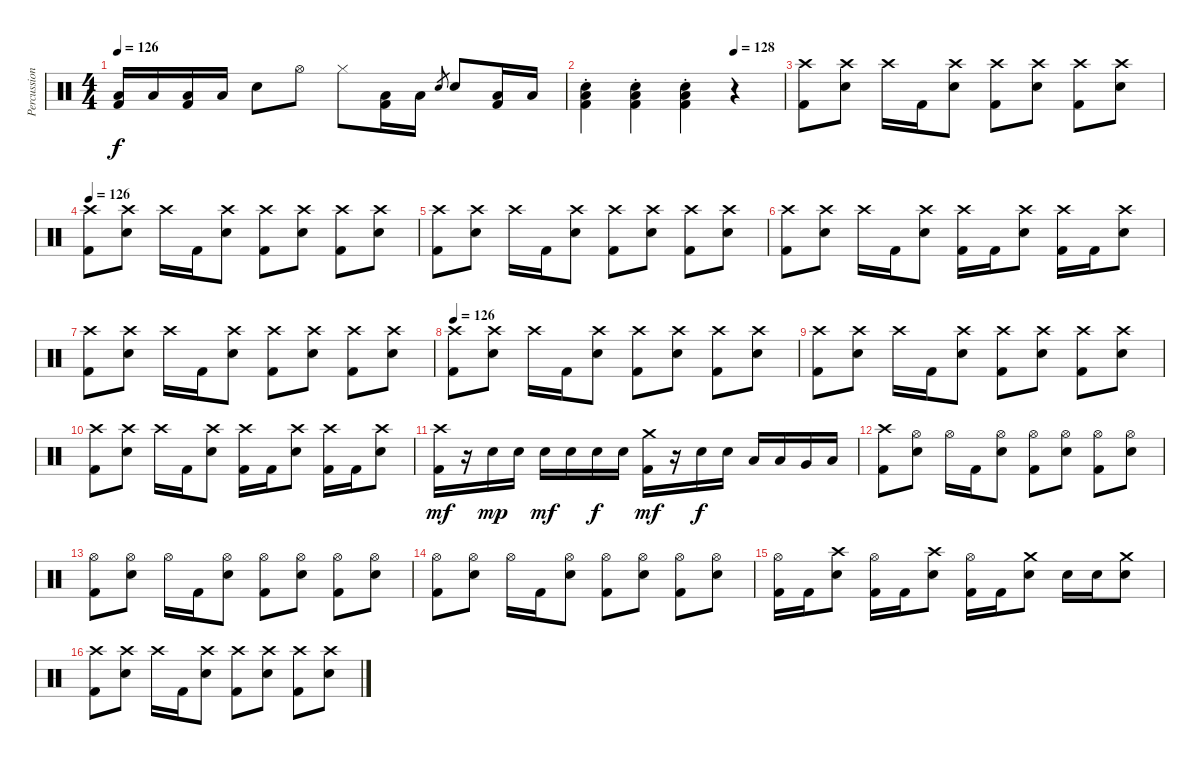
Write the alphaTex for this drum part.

\track ("Percussion" "Percussion") {instrument percussion}
\staff {score}
\articulation defaults
\ts (4 4)
\tempo 126
\clef neutral
\ks c
("Low Floor Tom (hit)" "Kick (hit) 2").16{dy f} "Low Floor Tom (hit)".16 ("Low Floor Tom (hit)" "Kick (hit) 2").16 "Low Floor Tom (hit)".16 "Snare (hit) 2".8 "Hi-Hat (open)".8 "Hi-Hat (closed)".8 ("Low Floor Tom (hit)" "Kick (hit) 2").16 "Low Floor Tom (hit)".16 "Snare (hit) 2".8{gr} "Snare (hit) 2".8 ("Low Floor Tom (hit)" "Kick (hit) 2").16 "Low Floor Tom (hit)".16 |
\tempo (128 0.75)
("Snare (hit) 2"{st} "Low Floor Tom (hit)"{st} "Kick (hit) 2"{st}).4 ("Snare (hit) 2"{st} "Low Floor Tom (hit)"{st} "Kick (hit) 2"{st}).4 ("Snare (hit) 2"{st} "Low Floor Tom (hit)"{st} "Kick (hit) 2"{st}).4 r.4 |
("Crash high (hit)" "Kick (hit) 2").8 ("Crash high (hit)" "Snare (hit) 2").8 "Crash high (hit)".16 "Kick (hit) 2".16 ("Crash high (hit)" "Snare (hit) 2").8 ("Crash high (hit)" "Kick (hit) 2").8 ("Crash high (hit)" "Snare (hit) 2").8 ("Crash high (hit)" "Kick (hit) 2").8 ("Crash high (hit)" "Snare (hit) 2").8 |
\tempo 126
("Crash high (hit)" "Kick (hit) 2").8 ("Crash high (hit)" "Snare (hit) 2").8 "Crash high (hit)".16 "Kick (hit) 2".16 ("Crash high (hit)" "Snare (hit) 2").8 ("Crash high (hit)" "Kick (hit) 2").8 ("Crash high (hit)" "Snare (hit) 2").8 ("Crash high (hit)" "Kick (hit) 2").8 ("Crash high (hit)" "Snare (hit) 2").8 |
("Crash high (hit)" "Kick (hit) 2").8 ("Crash high (hit)" "Snare (hit) 2").8 "Crash high (hit)".16 "Kick (hit) 2".16 ("Crash high (hit)" "Snare (hit) 2").8 ("Crash high (hit)" "Kick (hit) 2").8 ("Crash high (hit)" "Snare (hit) 2").8 ("Crash high (hit)" "Kick (hit) 2").8 ("Crash high (hit)" "Snare (hit) 2").8 |
("Crash high (hit)" "Kick (hit) 2").8 ("Crash high (hit)" "Snare (hit) 2").8 "Crash high (hit)".16 "Kick (hit) 2".16 ("Crash high (hit)" "Snare (hit) 2").8 ("Crash high (hit)" "Kick (hit) 2").16 "Kick (hit) 2".16 ("Crash high (hit)" "Snare (hit) 2").8 ("Crash high (hit)" "Kick (hit) 2").16 "Kick (hit) 2".16 ("Crash high (hit)" "Snare (hit) 2").8 |
("Crash high (hit)" "Kick (hit) 2").8 ("Crash high (hit)" "Snare (hit) 2").8 "Crash high (hit)".16 "Kick (hit) 2".16 ("Crash high (hit)" "Snare (hit) 2").8 ("Crash high (hit)" "Kick (hit) 2").8 ("Crash high (hit)" "Snare (hit) 2").8 ("Crash high (hit)" "Kick (hit) 2").8 ("Crash high (hit)" "Snare (hit) 2").8 |
\tempo 126
("Crash high (hit)" "Kick (hit) 2").8 ("Crash high (hit)" "Snare (hit) 2").8 "Crash high (hit)".16 "Kick (hit) 2".16 ("Crash high (hit)" "Snare (hit) 2").8 ("Crash high (hit)" "Kick (hit) 2").8 ("Crash high (hit)" "Snare (hit) 2").8 ("Crash high (hit)" "Kick (hit) 2").8 ("Crash high (hit)" "Snare (hit) 2").8 |
("Crash high (hit)" "Kick (hit) 2").8 ("Crash high (hit)" "Snare (hit) 2").8 "Crash high (hit)".16 "Kick (hit) 2".16 ("Crash high (hit)" "Snare (hit) 2").8 ("Crash high (hit)" "Kick (hit) 2").8 ("Crash high (hit)" "Snare (hit) 2").8 ("Crash high (hit)" "Kick (hit) 2").8 ("Crash high (hit)" "Snare (hit) 2").8 |
("Crash high (hit)" "Kick (hit) 2").8 ("Crash high (hit)" "Snare (hit) 2").8 "Crash high (hit)".16 "Kick (hit) 2".16 ("Crash high (hit)" "Snare (hit) 2").8 ("Crash high (hit)" "Kick (hit) 2").16 "Kick (hit) 2".16 ("Crash high (hit)" "Snare (hit) 2").8 ("Crash high (hit)" "Kick (hit) 2").16 "Kick (hit) 2".16 ("Crash high (hit)" "Snare (hit) 2").8 |
("Crash high (hit)" "Kick (hit) 2").16{dy mf} r.16 "Snare (hit) 2".16{dy mp} "Snare (hit) 2".16 "Snare (hit) 2".16{dy mf} "Snare (hit) 2".16 "Snare (hit) 2".16{dy f} "Snare (hit) 2".16 ("Crash medium (hit)" "Kick (hit) 2").16{dy mf} r.16 "Snare (hit) 2".16{dy f} "Snare (hit) 2".16 "Low Tom (hit)".16 "Low Tom (hit)".16 "Very Low Tom (hit)".16 "Low Floor Tom (hit)".16 |
("Crash high (hit)" "Kick (hit) 2").8 ("Hi-Hat (open)" "Snare (hit) 2").8 "Hi-Hat (open)".16 "Kick (hit) 2".16 ("Hi-Hat (open)" "Snare (hit) 2").8 ("Hi-Hat (open)" "Kick (hit) 2").8 ("Hi-Hat (open)" "Snare (hit) 2").8 ("Hi-Hat (open)" "Kick (hit) 2").8 ("Hi-Hat (open)" "Snare (hit) 2").8 |
("Hi-Hat (open)" "Kick (hit) 2").8 ("Hi-Hat (open)" "Snare (hit) 2").8 "Hi-Hat (open)".16 "Kick (hit) 2".16 ("Hi-Hat (open)" "Snare (hit) 2").8 ("Hi-Hat (open)" "Kick (hit) 2").8 ("Hi-Hat (open)" "Snare (hit) 2").8 ("Hi-Hat (open)" "Kick (hit) 2").8 ("Hi-Hat (open)" "Snare (hit) 2").8 |
("Hi-Hat (open)" "Kick (hit) 2").8 ("Hi-Hat (open)" "Snare (hit) 2").8 "Hi-Hat (open)".16 "Kick (hit) 2".16 ("Hi-Hat (open)" "Snare (hit) 2").8 ("Hi-Hat (open)" "Kick (hit) 2").8 ("Hi-Hat (open)" "Snare (hit) 2").8 ("Hi-Hat (open)" "Kick (hit) 2").8 ("Hi-Hat (open)" "Snare (hit) 2").8 |
("Hi-Hat (open)" "Kick (hit) 2").16 "Kick (hit) 2".16 ("Crash high (hit)" "Snare (hit) 2").8 ("Hi-Hat (open)" "Kick (hit) 2").16 "Kick (hit) 2".16 ("Crash high (hit)" "Snare (hit) 2").8 ("Hi-Hat (open)" "Kick (hit) 2").16 "Kick (hit) 2".16 ("Crash medium (hit)" "Snare (hit) 2").8 "Snare (hit) 2".16 "Snare (hit) 2".16 ("Crash medium (hit)" "Snare (hit) 2").8 |
("Crash high (hit)" "Kick (hit) 2").8 ("Crash high (hit)" "Snare (hit) 2").8 "Crash high (hit)".16 "Kick (hit) 2".16 ("Crash high (hit)" "Snare (hit) 2").8 ("Crash high (hit)" "Kick (hit) 2").8 ("Crash high (hit)" "Snare (hit) 2").8 ("Crash high (hit)" "Kick (hit) 2").8 ("Crash high (hit)" "Snare (hit) 2").8
